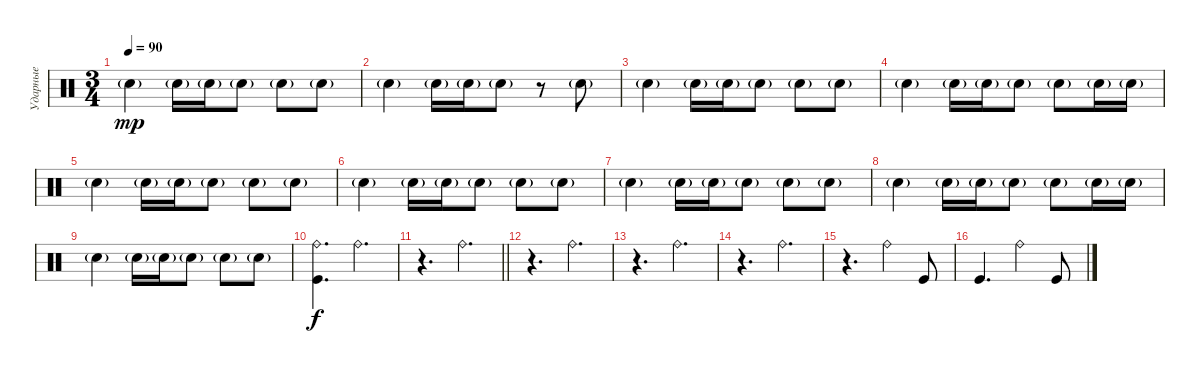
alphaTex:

\track ("Ударные" "Ударные") {instrument percussion}
\staff {score}
\articulation defaults
\ts (3 4)
\tempo 90
\clef neutral
\ks c "Electric Snare (hit)"{g}.4{dy mp} "Electric Snare (hit)"{g}.16 "Electric Snare (hit)"{g}.16 "Electric Snare (hit)"{g}.8 "Electric Snare (hit)"{g}.8 "Electric Snare (hit)"{g}.8
|
"Electric Snare (hit)"{g}.4 "Electric Snare (hit)"{g}.16 "Electric Snare (hit)"{g}.16 "Electric Snare (hit)"{g}.8 r.8 "Electric Snare (hit)"{g}.8 |
"Electric Snare (hit)"{g}.4 "Electric Snare (hit)"{g}.16 "Electric Snare (hit)"{g}.16 "Electric Snare (hit)"{g}.8 "Electric Snare (hit)"{g}.8 "Electric Snare (hit)"{g}.8 |
"Electric Snare (hit)"{g}.4 "Electric Snare (hit)"{g}.16 "Electric Snare (hit)"{g}.16 "Electric Snare (hit)"{g}.8 "Electric Snare (hit)"{g}.8 "Electric Snare (hit)"{g}.16 "Electric Snare (hit)"{g}.16 |
"Electric Snare (hit)"{g}.4 "Electric Snare (hit)"{g}.16 "Electric Snare (hit)"{g}.16 "Electric Snare (hit)"{g}.8 "Electric Snare (hit)"{g}.8 "Electric Snare (hit)"{g}.8 |
"Electric Snare (hit)"{g}.4 "Electric Snare (hit)"{g}.16 "Electric Snare (hit)"{g}.16 "Electric Snare (hit)"{g}.8 "Electric Snare (hit)"{g}.8 "Electric Snare (hit)"{g}.8 |
"Electric Snare (hit)"{g}.4 "Electric Snare (hit)"{g}.16 "Electric Snare (hit)"{g}.16 "Electric Snare (hit)"{g}.8 "Electric Snare (hit)"{g}.8 "Electric Snare (hit)"{g}.8 |
"Electric Snare (hit)"{g}.4 "Electric Snare (hit)"{g}.16 "Electric Snare (hit)"{g}.16 "Electric Snare (hit)"{g}.8 "Electric Snare (hit)"{g}.8 "Electric Snare (hit)"{g}.16 "Electric Snare (hit)"{g}.16 |
"Electric Snare (hit)"{g}.4 "Electric Snare (hit)"{g}.16 "Electric Snare (hit)"{g}.16 "Electric Snare (hit)"{g}.8 "Electric Snare (hit)"{g}.8 "Electric Snare (hit)"{g}.8 |
("Ride (bell)" "Kick (hit)").4{d dy f} "Ride (bell)".4{d} |
\barLineRight lightlight
r.4{d} "Ride (bell)".4{d} |
r.4{d} "Ride (bell)".4{d} |
r.4{d} "Ride (bell)".4{d} |
r.4{d} "Ride (bell)".4{d} |
r.4{d} "Ride (bell)".4 "Kick (hit)".8 |
"Kick (hit)".4{d} "Ride (bell)".4 "Kick (hit)".8
